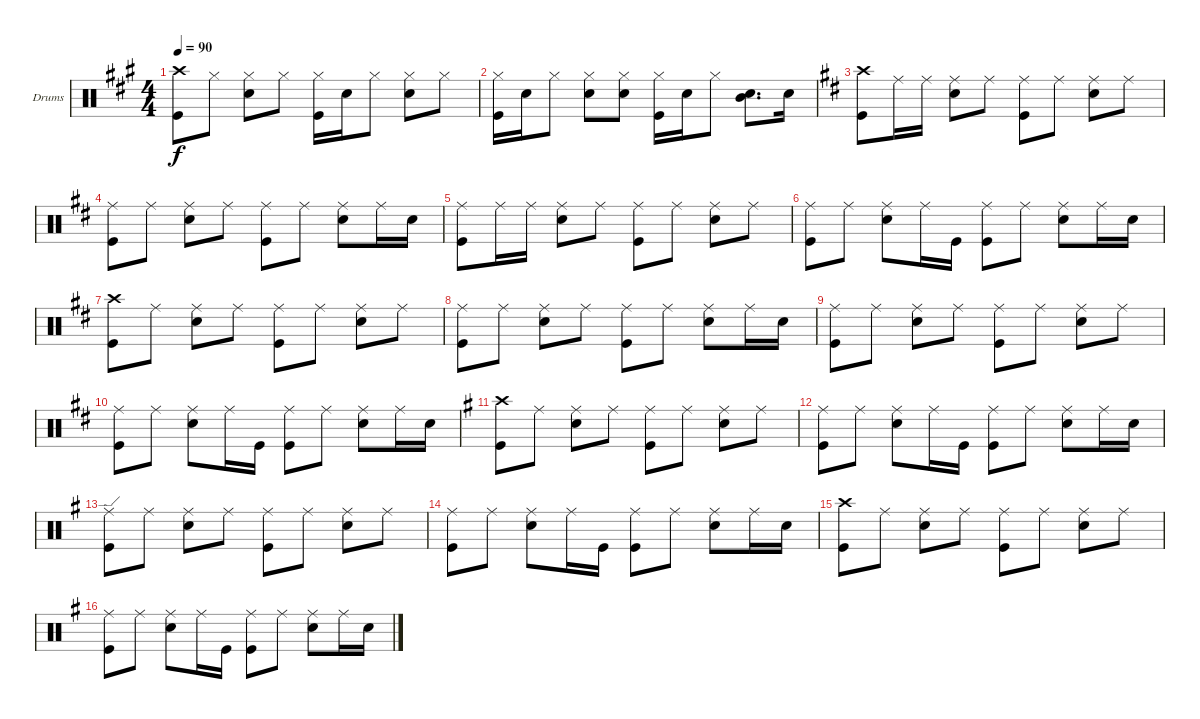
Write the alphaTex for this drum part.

\bracketExtendMode groupsimilarinstruments
\firstSystemTrackNameOrientation horizontal
\otherSystemsTrackNameOrientation horizontal
\track ("Drumkit" "Drums") {instrument percussion}
\staff {score}
\articulation defaults
\ts (4 4)
\tempo 90
\clef neutral
\ks a
("Crash high (hit)" "Kick (hit)").8{dy f} "Hi-Hat (closed)".8 ("Hi-Hat (closed)" "Snare (hit) 2").8 "Hi-Hat (closed)".8 ("Hi-Hat (closed)" "Kick (hit)").16 "Snare (hit) 2".16 "Hi-Hat (closed)".8 ("Hi-Hat (closed)" "Snare (hit) 2").8 "Hi-Hat (closed)".8 |
("Hi-Hat (closed)" "Kick (hit)").16 "Snare (hit) 2".16 "Hi-Hat (closed)".8 ("Hi-Hat (closed)" "Snare (hit) 2").8 ("Hi-Hat (closed)" "Snare (hit) 2").8 ("Hi-Hat (closed)" "Kick (hit)").16 "Snare (hit) 2".16 "Hi-Hat (closed)".8 ("Mid Tom (hit)" "Snare (hit) 2").8{d} "Snare (hit) 2".16 |
\ks d
("Crash high (hit)" "Kick (hit)").8 "Ride (middle)".16 "Ride (middle)".16 ("Ride (middle)" "Snare (hit) 2").8 "Ride (middle)".8 ("Ride (middle)" "Kick (hit)").8 "Ride (middle)".8 ("Ride (middle)" "Snare (hit) 2").8 "Ride (middle)".8 |
("Ride (middle)" "Kick (hit)").8 "Ride (middle)".8 ("Ride (middle)" "Snare (hit) 2").8 "Ride (middle)".8 ("Ride (middle)" "Kick (hit)").8 "Ride (middle)".8 ("Ride (middle)" "Snare (hit) 2").8 "Ride (middle)".16 "Snare (hit) 2".16 |
("Ride (middle)" "Kick (hit)").8 "Ride (middle)".16 "Ride (middle)".16 ("Ride (middle)" "Snare (hit) 2").8 "Ride (middle)".8 ("Ride (middle)" "Kick (hit)").8 "Ride (middle)".8 ("Ride (middle)" "Snare (hit) 2").8 "Ride (middle)".8 |
("Ride (middle)" "Kick (hit)").8 "Ride (middle)".8 ("Ride (middle)" "Snare (hit) 2").8 "Ride (middle)".16 "Kick (hit)".16 ("Ride (middle)" "Kick (hit)").8 "Ride (middle)".8 ("Ride (middle)" "Snare (hit) 2").8 "Ride (middle)".16 "Snare (hit) 2".16 |
("Crash high (hit)" "Kick (hit)").8 "Ride (middle)".8 ("Ride (middle)" "Snare (hit) 2").8 "Ride (middle)".8 ("Ride (middle)" "Kick (hit)").8 "Ride (middle)".8 ("Ride (middle)" "Snare (hit) 2").8 "Ride (middle)".8 |
("Ride (middle)" "Kick (hit)").8 "Ride (middle)".8 ("Ride (middle)" "Snare (hit) 2").8 "Ride (middle)".8 ("Ride (middle)" "Kick (hit)").8 "Ride (middle)".8 ("Ride (middle)" "Snare (hit) 2").8 "Ride (middle)".16 "Snare (hit) 2".16 |
("Ride (middle)" "Kick (hit)").8 "Ride (middle)".8 ("Ride (middle)" "Snare (hit) 2").8 "Ride (middle)".8 ("Ride (middle)" "Kick (hit)").8 "Ride (middle)".8 ("Ride (middle)" "Snare (hit) 2").8 "Ride (middle)".8 |
("Ride (middle)" "Kick (hit)").8 "Ride (middle)".8 ("Ride (middle)" "Snare (hit) 2").8 "Ride (middle)".16 "Kick (hit)".16 ("Ride (middle)" "Kick (hit)").8 "Ride (middle)".8 ("Ride (middle)" "Snare (hit) 2").8 "Ride (middle)".16 "Snare (hit) 2".16 |
\ks g
("Crash high (hit)" "Kick (hit)").8 "Ride (middle)".8 ("Ride (middle)" "Snare (hit) 2").8 "Ride (middle)".8 ("Ride (middle)" "Kick (hit)").8 "Ride (middle)".8 ("Ride (middle)" "Snare (hit) 2").8 "Ride (middle)".8 |
("Ride (middle)" "Kick (hit)").8 "Ride (middle)".8 ("Ride (middle)" "Snare (hit) 2").8 "Ride (middle)".16 "Kick (hit)".16 ("Ride (middle)" "Kick (hit)").8 "Ride (middle)".8 ("Ride (middle)" "Snare (hit) 2").8 "Ride (middle)".16 "Snare (hit) 2".16 |
("Ride (edge)" "Kick (hit)").8 "Ride (middle)".8 ("Ride (middle)" "Snare (hit) 2").8 "Ride (middle)".8 ("Ride (middle)" "Kick (hit)").8 "Ride (middle)".8 ("Ride (middle)" "Snare (hit) 2").8 "Ride (middle)".8 |
("Ride (middle)" "Kick (hit)").8 "Ride (middle)".8 ("Ride (middle)" "Snare (hit) 2").8 "Ride (middle)".16 "Kick (hit)".16 ("Ride (middle)" "Kick (hit)").8 "Ride (middle)".8 ("Ride (middle)" "Snare (hit) 2").8 "Ride (middle)".16 "Snare (hit) 2".16 |
("Crash high (hit)" "Kick (hit)").8 "Ride (middle)".8 ("Ride (middle)" "Snare (hit) 2").8 "Ride (middle)".8 ("Ride (middle)" "Kick (hit)").8 "Ride (middle)".8 ("Ride (middle)" "Snare (hit) 2").8 "Ride (middle)".8 |
("Ride (middle)" "Kick (hit)").8 "Ride (middle)".8 ("Ride (middle)" "Snare (hit) 2").8 "Ride (middle)".16 "Kick (hit)".16 ("Ride (middle)" "Kick (hit)").8 "Ride (middle)".8 ("Ride (middle)" "Snare (hit) 2").8 "Ride (middle)".16 "Snare (hit) 2".16
